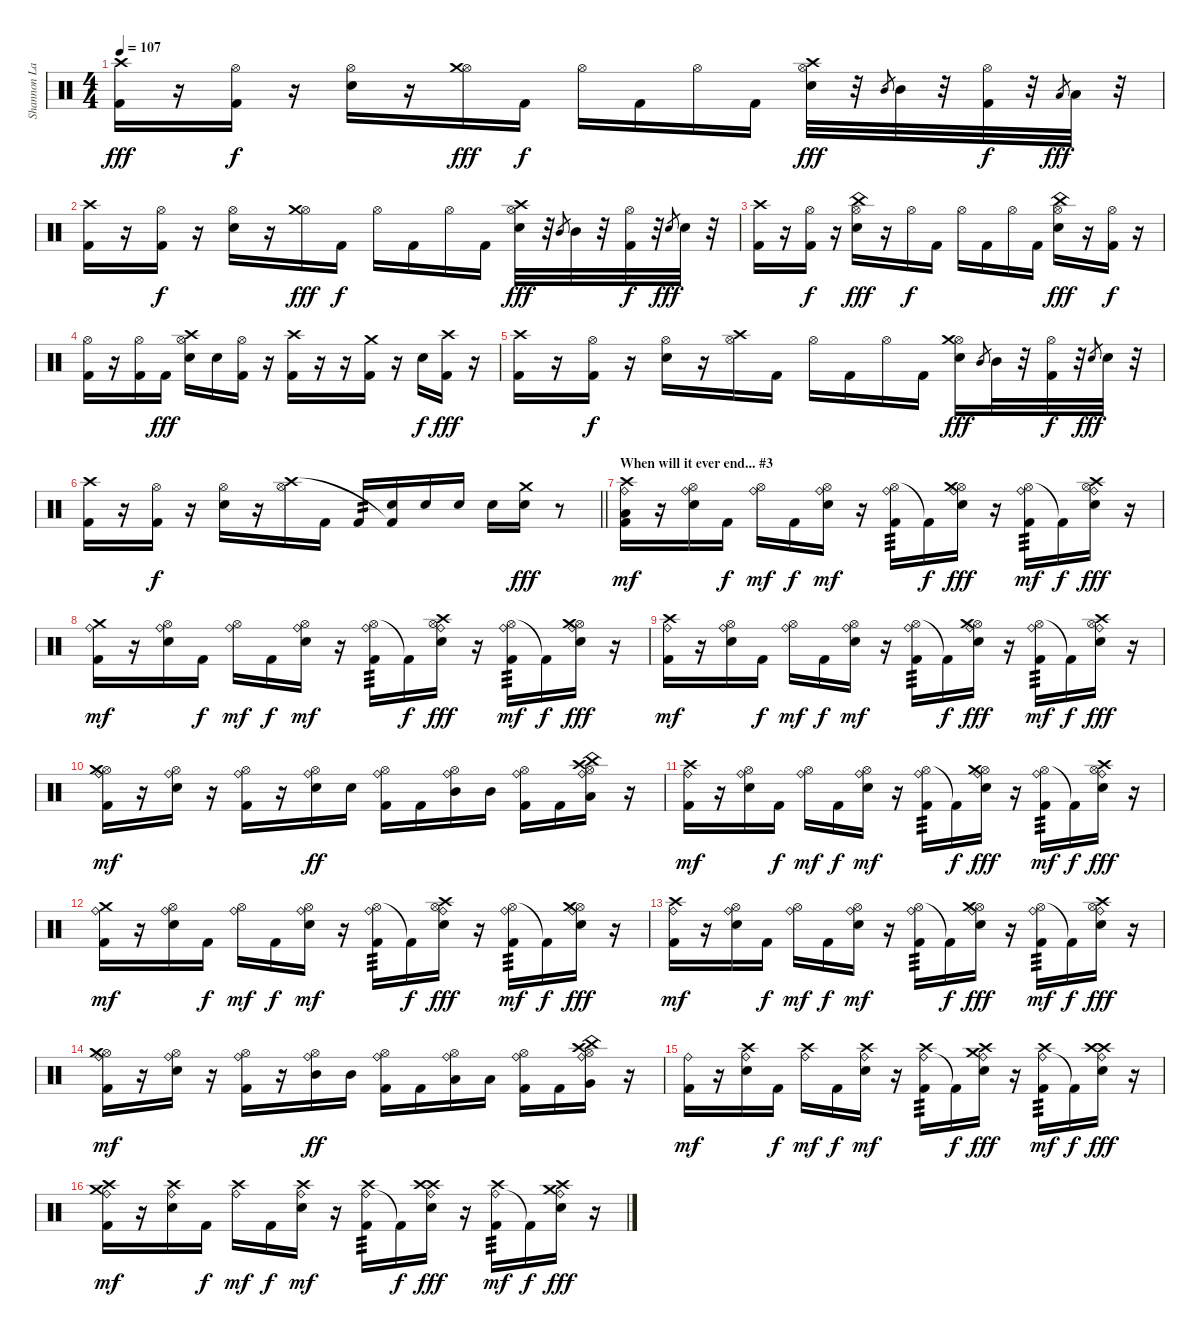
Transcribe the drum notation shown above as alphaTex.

\track ("Shannon Larkin" "Shannon La") {instrument percussion}
\staff {score}
\articulation defaults
\ts (4 4)
\tempo 107
\clef neutral
\ks c
("Crash high (hit)" "Kick (hit) 2").16{dy fff} r.16 ("Hi-Hat (open)" "Kick (hit) 2").16{dy f} r.16 ("Hi-Hat (open)" "Electric Snare (hit)").16 r.16 ("Hi-Hat (open)" "Crash medium (hit)").16{dy fff} "Kick (hit) 2".16{dy f} "Hi-Hat (open)".16 "Kick (hit) 2".16 "Hi-Hat (open)".16 "Kick (hit) 2".16 ("Hi-Hat (open)" "Electric Snare (hit)" "Crash high (hit)").32{dy fff} r.32 "Mid Tom (hit)".8{gr} "Mid Tom (hit)".32 r.32 ("Hi-Hat (open)" "Kick (hit) 2").32{dy f} r.32 "Low Tom (hit)".8{gr dy fff} "Low Tom (hit)".32 r.32 |
("Crash high (hit)" "Kick (hit) 2").16 r.16 ("Hi-Hat (open)" "Kick (hit) 2").16{dy f} r.16 ("Hi-Hat (open)" "Electric Snare (hit)").16 r.16 ("Hi-Hat (open)" "Crash medium (hit)").16{dy fff} "Kick (hit) 2".16{dy f} "Hi-Hat (open)".16 "Kick (hit) 2".16 "Hi-Hat (open)".16 "Kick (hit) 2".16 ("Hi-Hat (open)" "Electric Snare (hit)" "Crash high (hit)").32{dy fff} r.32 "Mid Tom (hit)".8{gr} "Mid Tom (hit)".32 r.32 ("Hi-Hat (open)" "Kick (hit) 2").32{dy f} r.32 "Electric Snare (hit)".8{gr dy fff} "Electric Snare (hit)".32 r.32 |
("Crash high (hit)" "Kick (hit) 2").16 r.16 ("Hi-Hat (open)" "Kick (hit) 2").16{dy f} r.16 ("Hi-Hat (open)" "Electric Snare (hit)" "China (hit)").16{dy fff} r.16 "Hi-Hat (open)".16{dy f} "Kick (hit) 2".16 "Hi-Hat (open)".16 "Kick (hit) 2".16 "Hi-Hat (open)".16 "Kick (hit) 2".16 ("Hi-Hat (open)" "Electric Snare (hit)" "China (hit)").16{dy fff} r.16 ("Hi-Hat (open)" "Kick (hit) 2").16{dy f} r.16 |
("Hi-Hat (open)" "Kick (hit) 2").16 r.16 ("Hi-Hat (open)" "Kick (hit) 2").16 "Kick (hit) 2".16{dy fff} ("Hi-Hat (open)" "Electric Snare (hit)" "Crash high (hit)").16 "Electric Snare (hit)".16 ("Hi-Hat (open)" "Kick (hit) 2").16 r.16 ("Crash high (hit)" "Kick (hit) 2").16 r.16 r.16 ("Crash medium (hit)" "Kick (hit) 2").16 r.16 "Electric Snare (hit)".16{dy f} ("Crash high (hit)" "Kick (hit) 2").16{dy fff} r.16 |
("Crash high (hit)" "Kick (hit) 2").16 r.16 ("Hi-Hat (open)" "Kick (hit) 2").16{dy f} r.16 ("Hi-Hat (open)" "Electric Snare (hit)").16 r.16 ("Hi-Hat (open)" "Crash high (hit)").16 "Kick (hit) 2".16 "Hi-Hat (open)".16 "Kick (hit) 2".16 "Hi-Hat (open)".16 "Kick (hit) 2".16 ("Hi-Hat (open)" "Electric Snare (hit)" "Crash medium (hit)").16{dy fff} "Mid Tom (hit)".8{gr} "Mid Tom (hit)".32 r.32 ("Hi-Hat (open)" "Kick (hit) 2").32{dy f} r.32 "Electric Snare (hit)".8{gr dy fff} "Electric Snare (hit)".32 r.32 |
\barLineRight lightlight
("Crash high (hit)" "Kick (hit) 2").16 r.16 ("Hi-Hat (open)" "Kick (hit) 2").16{dy f} r.16 ("Hi-Hat (open)" "Electric Snare (hit)").16 r.16 ("Hi-Hat (open)" "Crash high (hit)").16 "Kick (hit) 2".16 "Kick (hit) 2".16{tp 2} ("Electric Snare (hit)" "Kick (hit) 2"{t}).16 "Electric Snare (hit)".16 "Electric Snare (hit)".16 "Electric Snare (hit)".16 ("Crash medium (hit)" "Electric Snare (hit)").16{dy fff} r.8 |
\section ("" "When will it ever end... #3")
("Crash high (hit)" "Ride (bell)" "Low Floor Tom (hit)" "Kick (hit) 2").16{dy mf} r.16 ("Hi-Hat (open)" "Ride (bell)" "Electric Snare (hit)").16 "Kick (hit) 2".16{dy f} ("Hi-Hat (open)" "Ride (bell)").16{dy mf} "Kick (hit) 2".16{dy f} ("Hi-Hat (open)" "Ride (bell)" "Electric Snare (hit)").16{dy mf} r.16 ("Hi-Hat (open)" "Ride (bell)" "Kick (hit) 2").16{tp 3} "Kick (hit) 2"{t}.16{dy f} ("Hi-Hat (open)" "Ride (bell)" "Electric Snare (hit)" "Crash medium (hit)").16{dy fff} r.16 ("Hi-Hat (open)" "Ride (bell)" "Kick (hit) 2").16{tp 3 dy mf} "Kick (hit) 2"{t}.16{dy f} ("Hi-Hat (open)" "Ride (bell)" "Electric Snare (hit)" "Crash high (hit)").16{dy fff} r.16 |
("Crash medium (hit)" "Ride (bell)" "Kick (hit) 2").16{dy mf} r.16 ("Hi-Hat (open)" "Ride (bell)" "Electric Snare (hit)").16 "Kick (hit) 2".16{dy f} ("Hi-Hat (open)" "Ride (bell)").16{dy mf} "Kick (hit) 2".16{dy f} ("Hi-Hat (open)" "Ride (bell)" "Electric Snare (hit)").16{dy mf} r.16 ("Hi-Hat (open)" "Ride (bell)" "Kick (hit) 2").16{tp 3} "Kick (hit) 2"{t}.16{dy f} ("Hi-Hat (open)" "Ride (bell)" "Electric Snare (hit)" "Crash high (hit)").16{dy fff} r.16 ("Hi-Hat (open)" "Ride (bell)" "Kick (hit) 2").16{tp 3 dy mf} "Kick (hit) 2"{t}.16{dy f} ("Hi-Hat (open)" "Ride (bell)" "Electric Snare (hit)" "Crash medium (hit)").16{dy fff} r.16 |
("Crash high (hit)" "Ride (bell)" "Kick (hit) 2").16{dy mf} r.16 ("Hi-Hat (open)" "Ride (bell)" "Electric Snare (hit)").16 "Kick (hit) 2".16{dy f} ("Hi-Hat (open)" "Ride (bell)").16{dy mf} "Kick (hit) 2".16{dy f} ("Hi-Hat (open)" "Ride (bell)" "Electric Snare (hit)").16{dy mf} r.16 ("Hi-Hat (open)" "Ride (bell)" "Kick (hit) 2").16{tp 3} "Kick (hit) 2"{t}.16{dy f} ("Hi-Hat (open)" "Ride (bell)" "Electric Snare (hit)" "Crash medium (hit)").16{dy fff} r.16 ("Hi-Hat (open)" "Ride (bell)" "Kick (hit) 2").16{tp 3 dy mf} "Kick (hit) 2"{t}.16{dy f} ("Hi-Hat (open)" "Ride (bell)" "Electric Snare (hit)" "Crash high (hit)").16{dy fff} r.16 |
("Hi-Hat (open)" "Crash medium (hit)" "Ride (bell)" "Kick (hit) 2").16{dy mf} r.16 ("Hi-Hat (open)" "Ride (bell)" "Electric Snare (hit)").16 r.16 ("Hi-Hat (open)" "Ride (bell)" "Kick (hit) 2").16 r.16 ("Hi-Hat (open)" "Ride (bell)" "Electric Snare (hit)").16{dy ff} "Electric Snare (hit)".16 ("Hi-Hat (open)" "Ride (bell)" "Kick (hit) 2").16 "Kick (hit) 2".16 ("Hi-Hat (open)" "Ride (bell)" "Mid Tom (hit)").16 "Mid Tom (hit)".16 ("Hi-Hat (open)" "Ride (bell)" "Kick (hit) 2").16 "Kick (hit) 2".16 ("Hi-Hat (open)" "Ride (bell)" "Low Tom (hit)" "China (hit)" "Crash high (hit)").16 r.16 |
("Crash high (hit)" "Ride (bell)" "Kick (hit) 2").16{dy mf} r.16 ("Hi-Hat (open)" "Ride (bell)" "Electric Snare (hit)").16 "Kick (hit) 2".16{dy f} ("Hi-Hat (open)" "Ride (bell)").16{dy mf} "Kick (hit) 2".16{dy f} ("Hi-Hat (open)" "Ride (bell)" "Electric Snare (hit)").16{dy mf} r.16 ("Hi-Hat (open)" "Ride (bell)" "Kick (hit) 2").16{tp 3} "Kick (hit) 2"{t}.16{dy f} ("Hi-Hat (open)" "Ride (bell)" "Electric Snare (hit)" "Crash medium (hit)").16{dy fff} r.16 ("Hi-Hat (open)" "Ride (bell)" "Kick (hit) 2").16{tp 3 dy mf} "Kick (hit) 2"{t}.16{dy f} ("Hi-Hat (open)" "Ride (bell)" "Electric Snare (hit)" "Crash high (hit)").16{dy fff} r.16 |
("Crash medium (hit)" "Ride (bell)" "Kick (hit) 2").16{dy mf} r.16 ("Hi-Hat (open)" "Ride (bell)" "Electric Snare (hit)").16 "Kick (hit) 2".16{dy f} ("Hi-Hat (open)" "Ride (bell)").16{dy mf} "Kick (hit) 2".16{dy f} ("Hi-Hat (open)" "Ride (bell)" "Electric Snare (hit)").16{dy mf} r.16 ("Hi-Hat (open)" "Ride (bell)" "Kick (hit) 2").16{tp 3} "Kick (hit) 2"{t}.16{dy f} ("Hi-Hat (open)" "Ride (bell)" "Electric Snare (hit)" "Crash high (hit)").16{dy fff} r.16 ("Hi-Hat (open)" "Ride (bell)" "Kick (hit) 2").16{tp 3 dy mf} "Kick (hit) 2"{t}.16{dy f} ("Hi-Hat (open)" "Ride (bell)" "Electric Snare (hit)" "Crash medium (hit)").16{dy fff} r.16 |
("Crash high (hit)" "Ride (bell)" "Kick (hit) 2").16{dy mf} r.16 ("Hi-Hat (open)" "Ride (bell)" "Electric Snare (hit)").16 "Kick (hit) 2".16{dy f} ("Hi-Hat (open)" "Ride (bell)").16{dy mf} "Kick (hit) 2".16{dy f} ("Hi-Hat (open)" "Ride (bell)" "Electric Snare (hit)").16{dy mf} r.16 ("Hi-Hat (open)" "Ride (bell)" "Kick (hit) 2").16{tp 3} "Kick (hit) 2"{t}.16{dy f} ("Hi-Hat (open)" "Ride (bell)" "Electric Snare (hit)" "Crash medium (hit)").16{dy fff} r.16 ("Hi-Hat (open)" "Ride (bell)" "Kick (hit) 2").16{tp 3 dy mf} "Kick (hit) 2"{t}.16{dy f} ("Hi-Hat (open)" "Ride (bell)" "Electric Snare (hit)" "Crash high (hit)").16{dy fff} r.16 |
("Hi-Hat (open)" "Crash medium (hit)" "Ride (bell)" "Kick (hit) 2").16{dy mf} r.16 ("Hi-Hat (open)" "Ride (bell)" "Electric Snare (hit)").16 r.16 ("Hi-Hat (open)" "Ride (bell)" "Kick (hit) 2").16 r.16 ("Hi-Hat (open)" "Ride (bell)" "Mid Tom (hit)").16{dy ff} "Mid Tom (hit)".16 ("Hi-Hat (open)" "Ride (bell)" "Kick (hit) 2").16 "Kick (hit) 2".16 ("Hi-Hat (open)" "Ride (bell)" "Low Tom (hit)").16 "Low Tom (hit)".16 ("Hi-Hat (open)" "Ride (bell)" "Kick (hit) 2").16 "Kick (hit) 2".16 ("Hi-Hat (open)" "Ride (bell)" "Very Low Tom (hit)" "China (hit)" "Crash high (hit)").16 r.16 |
("Ride (bell)" "Kick (hit) 2").16{dy mf} r.16 ("Ride (bell)" "Electric Snare (hit)" "Crash high (hit)").16 "Kick (hit) 2".16{dy f} ("Ride (bell)" "Crash high (hit)").16{dy mf} "Kick (hit) 2".16{dy f} ("Ride (bell)" "Electric Snare (hit)" "Crash high (hit)").16{dy mf} r.16 ("Ride (bell)" "Crash high (hit)" "Kick (hit) 2").16{tp 3} "Kick (hit) 2"{t}.16{dy f} ("Ride (bell)" "Electric Snare (hit)" "Crash high (hit)" "Crash medium (hit)").16{dy fff} r.16 ("Ride (bell)" "Crash high (hit)" "Kick (hit) 2").16{tp 3 dy mf} "Kick (hit) 2"{t}.16{dy f} ("Ride (bell)" "Electric Snare (hit)" "Crash high (hit)" "Crash high (hit)").16{dy fff} r.16 |
("Crash medium (hit)" "Ride (bell)" "Crash high (hit)" "Kick (hit) 2").16{dy mf} r.16 ("Ride (bell)" "Electric Snare (hit)" "Crash high (hit)").16 "Kick (hit) 2".16{dy f} ("Ride (bell)" "Crash high (hit)").16{dy mf} "Kick (hit) 2".16{dy f} ("Ride (bell)" "Electric Snare (hit)" "Crash high (hit)").16{dy mf} r.16 ("Ride (bell)" "Crash high (hit)" "Kick (hit) 2").16{tp 3} "Kick (hit) 2"{t}.16{dy f} ("Ride (bell)" "Electric Snare (hit)" "Crash high (hit)" "Crash high (hit)").16{dy fff} r.16 ("Ride (bell)" "Crash high (hit)" "Kick (hit) 2").16{tp 3 dy mf} "Kick (hit) 2"{t}.16{dy f} ("Ride (bell)" "Electric Snare (hit)" "Crash high (hit)" "Crash medium (hit)").16{dy fff} r.16
